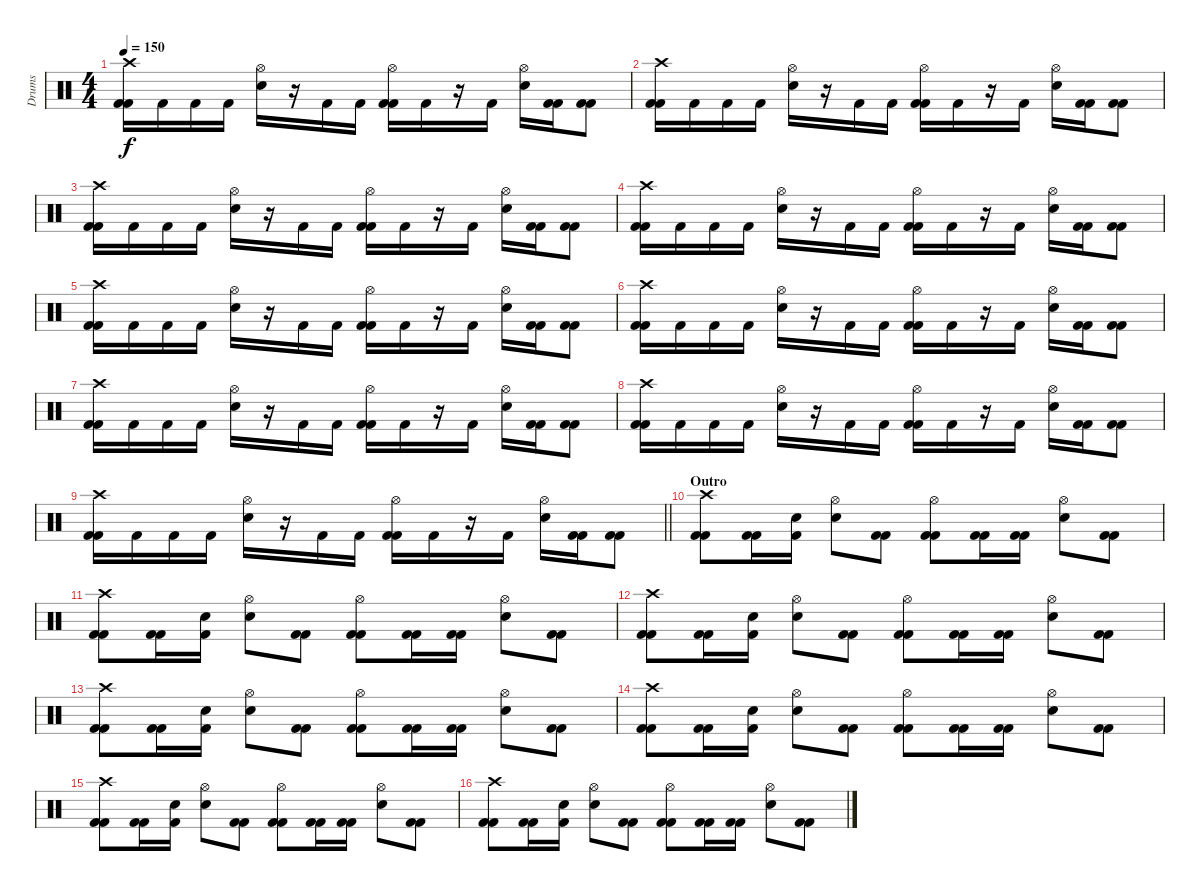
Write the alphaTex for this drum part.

\track ("Drums" "Drums") {instrument percussion}
\staff {score}
\articulation defaults
\ts (4 4)
\tempo 150
\clef neutral
\ks c
("Crash high (hit)" "Kick (hit) 2" "Kick (hit) 2").16{dy f} "Kick (hit) 2".16 "Kick (hit) 2".16 "Kick (hit) 2".16 ("Electric Snare (hit)" "Hi-Hat (open)").16 r.16 "Kick (hit) 2".16 "Kick (hit) 2".16 ("Hi-Hat (open)" "Kick (hit) 2" "Kick (hit) 2").16 "Kick (hit) 2".16 r.16 "Kick (hit) 2".16 ("Electric Snare (hit)" "Hi-Hat (open)").16 ("Kick (hit) 2" "Kick (hit) 2").16 ("Kick (hit) 2" "Kick (hit) 2").8 |
("Crash high (hit)" "Kick (hit) 2" "Kick (hit) 2").16 "Kick (hit) 2".16 "Kick (hit) 2".16 "Kick (hit) 2".16 ("Electric Snare (hit)" "Hi-Hat (open)").16 r.16 "Kick (hit) 2".16 "Kick (hit) 2".16 ("Hi-Hat (open)" "Kick (hit) 2" "Kick (hit) 2").16 "Kick (hit) 2".16 r.16 "Kick (hit) 2".16 ("Electric Snare (hit)" "Hi-Hat (open)").16 ("Kick (hit) 2" "Kick (hit) 2").16 ("Kick (hit) 2" "Kick (hit) 2").8 |
("Crash high (hit)" "Kick (hit) 2" "Kick (hit) 2").16 "Kick (hit) 2".16 "Kick (hit) 2".16 "Kick (hit) 2".16 ("Electric Snare (hit)" "Hi-Hat (open)").16 r.16 "Kick (hit) 2".16 "Kick (hit) 2".16 ("Hi-Hat (open)" "Kick (hit) 2" "Kick (hit) 2").16 "Kick (hit) 2".16 r.16 "Kick (hit) 2".16 ("Electric Snare (hit)" "Hi-Hat (open)").16 ("Kick (hit) 2" "Kick (hit) 2").16 ("Kick (hit) 2" "Kick (hit) 2").8 |
("Crash high (hit)" "Kick (hit) 2" "Kick (hit) 2").16 "Kick (hit) 2".16 "Kick (hit) 2".16 "Kick (hit) 2".16 ("Electric Snare (hit)" "Hi-Hat (open)").16 r.16 "Kick (hit) 2".16 "Kick (hit) 2".16 ("Hi-Hat (open)" "Kick (hit) 2" "Kick (hit) 2").16 "Kick (hit) 2".16 r.16 "Kick (hit) 2".16 ("Electric Snare (hit)" "Hi-Hat (open)").16 ("Kick (hit) 2" "Kick (hit) 2").16 ("Kick (hit) 2" "Kick (hit) 2").8 |
("Crash high (hit)" "Kick (hit) 2" "Kick (hit) 2").16 "Kick (hit) 2".16 "Kick (hit) 2".16 "Kick (hit) 2".16 ("Electric Snare (hit)" "Hi-Hat (open)").16 r.16 "Kick (hit) 2".16 "Kick (hit) 2".16 ("Hi-Hat (open)" "Kick (hit) 2" "Kick (hit) 2").16 "Kick (hit) 2".16 r.16 "Kick (hit) 2".16 ("Electric Snare (hit)" "Hi-Hat (open)").16 ("Kick (hit) 2" "Kick (hit) 2").16 ("Kick (hit) 2" "Kick (hit) 2").8 |
("Crash high (hit)" "Kick (hit) 2" "Kick (hit) 2").16 "Kick (hit) 2".16 "Kick (hit) 2".16 "Kick (hit) 2".16 ("Electric Snare (hit)" "Hi-Hat (open)").16 r.16 "Kick (hit) 2".16 "Kick (hit) 2".16 ("Hi-Hat (open)" "Kick (hit) 2" "Kick (hit) 2").16 "Kick (hit) 2".16 r.16 "Kick (hit) 2".16 ("Electric Snare (hit)" "Hi-Hat (open)").16 ("Kick (hit) 2" "Kick (hit) 2").16 ("Kick (hit) 2" "Kick (hit) 2").8 |
("Crash high (hit)" "Kick (hit) 2" "Kick (hit) 2").16 "Kick (hit) 2".16 "Kick (hit) 2".16 "Kick (hit) 2".16 ("Electric Snare (hit)" "Hi-Hat (open)").16 r.16 "Kick (hit) 2".16 "Kick (hit) 2".16 ("Hi-Hat (open)" "Kick (hit) 2" "Kick (hit) 2").16 "Kick (hit) 2".16 r.16 "Kick (hit) 2".16 ("Electric Snare (hit)" "Hi-Hat (open)").16 ("Kick (hit) 2" "Kick (hit) 2").16 ("Kick (hit) 2" "Kick (hit) 2").8 |
("Crash high (hit)" "Kick (hit) 2" "Kick (hit) 2").16 "Kick (hit) 2".16 "Kick (hit) 2".16 "Kick (hit) 2".16 ("Electric Snare (hit)" "Hi-Hat (open)").16 r.16 "Kick (hit) 2".16 "Kick (hit) 2".16 ("Hi-Hat (open)" "Kick (hit) 2" "Kick (hit) 2").16 "Kick (hit) 2".16 r.16 "Kick (hit) 2".16 ("Electric Snare (hit)" "Hi-Hat (open)").16 ("Kick (hit) 2" "Kick (hit) 2").16 ("Kick (hit) 2" "Kick (hit) 2").8 |
\barLineRight lightlight
("Crash high (hit)" "Kick (hit) 2" "Kick (hit) 2").16 "Kick (hit) 2".16 "Kick (hit) 2".16 "Kick (hit) 2".16 ("Electric Snare (hit)" "Hi-Hat (open)").16 r.16 "Kick (hit) 2".16 "Kick (hit) 2".16 ("Hi-Hat (open)" "Kick (hit) 2" "Kick (hit) 2").16 "Kick (hit) 2".16 r.16 "Kick (hit) 2".16 ("Electric Snare (hit)" "Hi-Hat (open)").16 ("Kick (hit) 2" "Kick (hit) 2").16 ("Kick (hit) 2" "Kick (hit) 2").8 |
\section ("" "Outro")
("Crash high (hit)" "Kick (hit) 2" "Kick (hit) 2").8 ("Kick (hit) 2" "Kick (hit) 2").16 ("Electric Snare (hit)" "Kick (hit) 2").16 ("Hi-Hat (open)" "Electric Snare (hit)").8 ("Kick (hit) 2" "Kick (hit) 2").8 ("Hi-Hat (open)" "Kick (hit) 2" "Kick (hit) 2").8 ("Kick (hit) 2" "Kick (hit) 2").16 ("Kick (hit) 2" "Kick (hit) 2").16 ("Electric Snare (hit)" "Hi-Hat (open)").8 ("Kick (hit) 2" "Kick (hit) 2").8 |
("Crash high (hit)" "Kick (hit) 2" "Kick (hit) 2").8 ("Kick (hit) 2" "Kick (hit) 2").16 ("Electric Snare (hit)" "Kick (hit) 2").16 ("Hi-Hat (open)" "Electric Snare (hit)").8 ("Kick (hit) 2" "Kick (hit) 2").8 ("Hi-Hat (open)" "Kick (hit) 2" "Kick (hit) 2").8 ("Kick (hit) 2" "Kick (hit) 2").16 ("Kick (hit) 2" "Kick (hit) 2").16 ("Electric Snare (hit)" "Hi-Hat (open)").8 ("Kick (hit) 2" "Kick (hit) 2").8 |
("Crash high (hit)" "Kick (hit) 2" "Kick (hit) 2").8 ("Kick (hit) 2" "Kick (hit) 2").16 ("Electric Snare (hit)" "Kick (hit) 2").16 ("Hi-Hat (open)" "Electric Snare (hit)").8 ("Kick (hit) 2" "Kick (hit) 2").8 ("Hi-Hat (open)" "Kick (hit) 2" "Kick (hit) 2").8 ("Kick (hit) 2" "Kick (hit) 2").16 ("Kick (hit) 2" "Kick (hit) 2").16 ("Electric Snare (hit)" "Hi-Hat (open)").8 ("Kick (hit) 2" "Kick (hit) 2").8 |
("Crash high (hit)" "Kick (hit) 2" "Kick (hit) 2").8 ("Kick (hit) 2" "Kick (hit) 2").16 ("Electric Snare (hit)" "Kick (hit) 2").16 ("Hi-Hat (open)" "Electric Snare (hit)").8 ("Kick (hit) 2" "Kick (hit) 2").8 ("Hi-Hat (open)" "Kick (hit) 2" "Kick (hit) 2").8 ("Kick (hit) 2" "Kick (hit) 2").16 ("Kick (hit) 2" "Kick (hit) 2").16 ("Electric Snare (hit)" "Hi-Hat (open)").8 ("Kick (hit) 2" "Kick (hit) 2").8 |
("Crash high (hit)" "Kick (hit) 2" "Kick (hit) 2").8 ("Kick (hit) 2" "Kick (hit) 2").16 ("Electric Snare (hit)" "Kick (hit) 2").16 ("Hi-Hat (open)" "Electric Snare (hit)").8 ("Kick (hit) 2" "Kick (hit) 2").8 ("Hi-Hat (open)" "Kick (hit) 2" "Kick (hit) 2").8 ("Kick (hit) 2" "Kick (hit) 2").16 ("Kick (hit) 2" "Kick (hit) 2").16 ("Electric Snare (hit)" "Hi-Hat (open)").8 ("Kick (hit) 2" "Kick (hit) 2").8 |
("Crash high (hit)" "Kick (hit) 2" "Kick (hit) 2").8 ("Kick (hit) 2" "Kick (hit) 2").16 ("Electric Snare (hit)" "Kick (hit) 2").16 ("Hi-Hat (open)" "Electric Snare (hit)").8 ("Kick (hit) 2" "Kick (hit) 2").8 ("Hi-Hat (open)" "Kick (hit) 2" "Kick (hit) 2").8 ("Kick (hit) 2" "Kick (hit) 2").16 ("Kick (hit) 2" "Kick (hit) 2").16 ("Electric Snare (hit)" "Hi-Hat (open)").8 ("Kick (hit) 2" "Kick (hit) 2").8 |
("Crash high (hit)" "Kick (hit) 2" "Kick (hit) 2").8 ("Kick (hit) 2" "Kick (hit) 2").16 ("Electric Snare (hit)" "Kick (hit) 2").16 ("Hi-Hat (open)" "Electric Snare (hit)").8 ("Kick (hit) 2" "Kick (hit) 2").8 ("Hi-Hat (open)" "Kick (hit) 2" "Kick (hit) 2").8 ("Kick (hit) 2" "Kick (hit) 2").16 ("Kick (hit) 2" "Kick (hit) 2").16 ("Electric Snare (hit)" "Hi-Hat (open)").8 ("Kick (hit) 2" "Kick (hit) 2").8
